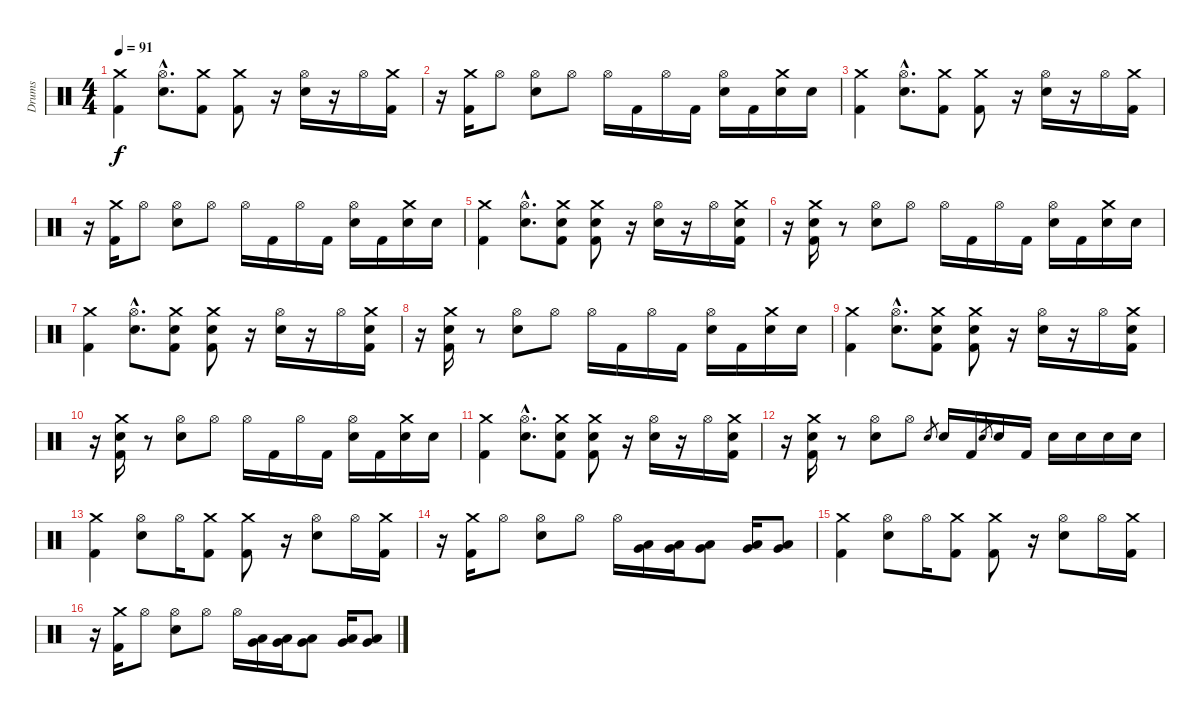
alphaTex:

\track ("Drums" "Drums") {instrument percussion}
\staff {score}
\articulation defaults
\ts (4 4)
\tempo 91
\clef neutral
\ks c
("Crash medium (hit)" "Kick (hit) 2").4{dy f} ("Hi-Hat (open)"{hac} "Snare (hit) 2"{hac}).8{d} ("Crash medium (hit)" "Kick (hit) 2").8 ("Crash medium (hit)" "Kick (hit) 2").8 r.16 ("Hi-Hat (open)" "Snare (hit) 2").16 r.16 "Hi-Hat (open)".16 ("Crash medium (hit)" "Kick (hit) 2").16 |
r.16 ("Crash medium (hit)" "Kick (hit) 2").16 "Hi-Hat (open)".8 ("Hi-Hat (open)" "Snare (hit) 2").8 "Hi-Hat (open)".8 "Hi-Hat (open)".16 "Kick (hit) 2".16 "Hi-Hat (open)".16 "Kick (hit) 2".16 ("Hi-Hat (open)" "Snare (hit) 2").16 "Kick (hit) 2".16 ("Crash medium (hit)" "Snare (hit) 2").16 "Snare (hit) 2".16 |
("Crash medium (hit)" "Kick (hit) 2").4 ("Hi-Hat (open)"{hac} "Snare (hit) 2"{hac}).8{d} ("Crash medium (hit)" "Kick (hit) 2").8 ("Crash medium (hit)" "Kick (hit) 2").8 r.16 ("Hi-Hat (open)" "Snare (hit) 2").16 r.16 "Hi-Hat (open)".16 ("Crash medium (hit)" "Kick (hit) 2").16 |
r.16 ("Crash medium (hit)" "Kick (hit) 2").16 "Hi-Hat (open)".8 ("Hi-Hat (open)" "Snare (hit) 2").8 "Hi-Hat (open)".8 "Hi-Hat (open)".16 "Kick (hit) 2".16 "Hi-Hat (open)".16 "Kick (hit) 2".16 ("Hi-Hat (open)" "Snare (hit) 2").16 "Kick (hit) 2".16 ("Crash medium (hit)" "Snare (hit) 2").16 "Snare (hit) 2".16 |
("Crash medium (hit)" "Kick (hit) 2").4 ("Hi-Hat (open)"{hac} "Snare (hit) 2"{hac}).8{d} ("Crash medium (hit)"{pm} "Snare (hit) 2"{pm} "Kick (hit) 2"{pm}).8 ("Crash medium (hit)"{pm} "Snare (hit) 2"{pm} "Kick (hit) 2"{pm}).8 r.16 ("Hi-Hat (open)" "Snare (hit) 2").16 r.16 "Hi-Hat (open)".16 ("Crash medium (hit)" "Snare (hit) 2" "Kick (hit) 2").16 |
r.16 ("Crash medium (hit)" "Snare (hit) 2" "Kick (hit) 2").16 r.8 ("Hi-Hat (open)" "Snare (hit) 2").8 "Hi-Hat (open)".8 "Hi-Hat (open)".16 "Kick (hit) 2".16 "Hi-Hat (open)".16 "Kick (hit) 2".16 ("Hi-Hat (open)" "Snare (hit) 2").16 "Kick (hit) 2".16 ("Crash medium (hit)" "Snare (hit) 2").16 "Snare (hit) 2".16 |
("Crash medium (hit)" "Kick (hit) 2").4 ("Hi-Hat (open)"{hac} "Snare (hit) 2"{hac}).8{d} ("Crash medium (hit)"{pm} "Snare (hit) 2"{pm} "Kick (hit) 2"{pm}).8 ("Crash medium (hit)"{pm} "Snare (hit) 2"{pm} "Kick (hit) 2"{pm}).8 r.16 ("Hi-Hat (open)" "Snare (hit) 2").16 r.16 "Hi-Hat (open)".16 ("Crash medium (hit)" "Snare (hit) 2" "Kick (hit) 2").16 |
r.16 ("Crash medium (hit)" "Snare (hit) 2" "Kick (hit) 2").16 r.8 ("Hi-Hat (open)" "Snare (hit) 2").8 "Hi-Hat (open)".8 "Hi-Hat (open)".16 "Kick (hit) 2".16 "Hi-Hat (open)".16 "Kick (hit) 2".16 ("Hi-Hat (open)" "Snare (hit) 2").16 "Kick (hit) 2".16 ("Crash medium (hit)" "Snare (hit) 2").16 "Snare (hit) 2".16 |
("Crash medium (hit)" "Kick (hit) 2").4 ("Hi-Hat (open)"{hac} "Snare (hit) 2"{hac}).8{d} ("Crash medium (hit)"{pm} "Snare (hit) 2"{pm} "Kick (hit) 2"{pm}).8 ("Crash medium (hit)"{pm} "Snare (hit) 2"{pm} "Kick (hit) 2"{pm}).8 r.16 ("Hi-Hat (open)" "Snare (hit) 2").16 r.16 "Hi-Hat (open)".16 ("Crash medium (hit)" "Snare (hit) 2" "Kick (hit) 2").16 |
r.16 ("Crash medium (hit)" "Snare (hit) 2" "Kick (hit) 2").16 r.8 ("Hi-Hat (open)" "Snare (hit) 2").8 "Hi-Hat (open)".8 "Hi-Hat (open)".16 "Kick (hit) 2".16 "Hi-Hat (open)".16 "Kick (hit) 2".16 ("Hi-Hat (open)" "Snare (hit) 2").16 "Kick (hit) 2".16 ("Crash medium (hit)" "Snare (hit) 2").16 "Snare (hit) 2".16 |
("Crash medium (hit)" "Kick (hit) 2").4 ("Hi-Hat (open)"{hac} "Snare (hit) 2"{hac}).8{d} ("Crash medium (hit)"{pm} "Snare (hit) 2"{pm} "Kick (hit) 2"{pm}).8 ("Crash medium (hit)"{pm} "Snare (hit) 2"{pm} "Kick (hit) 2"{pm}).8 r.16 ("Hi-Hat (open)" "Snare (hit) 2").16 r.16 "Hi-Hat (open)".16 ("Crash medium (hit)" "Snare (hit) 2" "Kick (hit) 2").16 |
r.16 ("Crash medium (hit)" "Snare (hit) 2" "Kick (hit) 2").16 r.8 ("Hi-Hat (open)" "Snare (hit) 2").8 "Hi-Hat (open)".8 "Snare (hit) 2".8{gr} "Snare (hit) 2".16 "Kick (hit) 2".16 "Snare (hit) 2".8{gr} "Snare (hit) 2".16 "Kick (hit) 2".16 "Snare (hit) 2".16 "Snare (hit) 2".16 "Snare (hit) 2".16 "Snare (hit) 2".16 |
("Crash medium (hit)" "Kick (hit) 2").4 ("Hi-Hat (open)" "Snare (hit) 2").8 "Hi-Hat (open)".16 ("Crash medium (hit)" "Kick (hit) 2").8 ("Crash medium (hit)" "Kick (hit) 2").8 r.16 ("Hi-Hat (open)" "Snare (hit) 2").8 "Hi-Hat (open)".16 ("Crash medium (hit)" "Kick (hit) 2").16 |
r.16 ("Crash medium (hit)" "Kick (hit) 2").16 "Hi-Hat (open)".8 ("Hi-Hat (open)" "Snare (hit) 2").8 "Hi-Hat (open)".8 "Hi-Hat (open)".16 ("Low Tom (hit)" "Very Low Tom (hit)").16 ("Low Tom (hit)" "Very Low Tom (hit)").16 ("Low Tom (hit)" "Very Low Tom (hit)").8 ("Low Tom (hit)" "Very Low Tom (hit)").16 ("Low Tom (hit)" "Very Low Tom (hit)").8 |
("Crash medium (hit)" "Kick (hit) 2").4 ("Hi-Hat (open)" "Snare (hit) 2").8 "Hi-Hat (open)".16 ("Crash medium (hit)" "Kick (hit) 2").8 ("Crash medium (hit)" "Kick (hit) 2").8 r.16 ("Hi-Hat (open)" "Snare (hit) 2").8 "Hi-Hat (open)".16 ("Crash medium (hit)" "Kick (hit) 2").16 |
r.16 ("Crash medium (hit)" "Kick (hit) 2").16 "Hi-Hat (open)".8 ("Hi-Hat (open)" "Snare (hit) 2").8 "Hi-Hat (open)".8 "Hi-Hat (open)".16 ("Low Tom (hit)" "Very Low Tom (hit)").16 ("Low Tom (hit)" "Very Low Tom (hit)").16 ("Low Tom (hit)" "Very Low Tom (hit)").8 ("Low Tom (hit)" "Very Low Tom (hit)").16 ("Low Tom (hit)" "Very Low Tom (hit)").8
